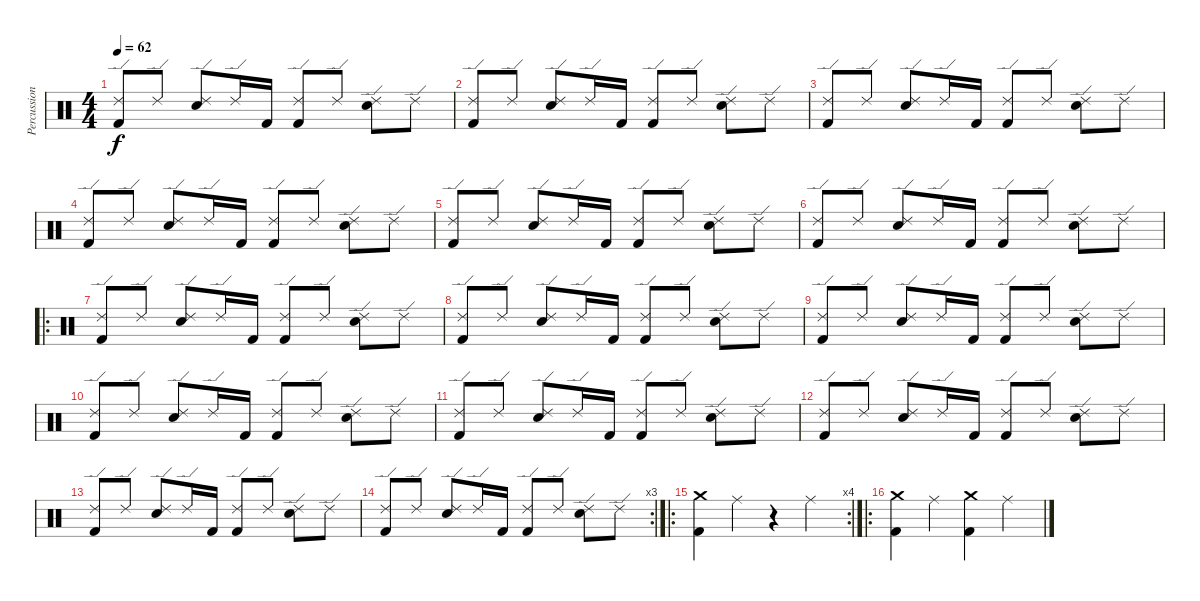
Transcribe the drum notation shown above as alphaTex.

\track ("Percussion" "Percussion") {instrument percussion}
\staff {score}
\articulation defaults
\ts (4 4)
\tempo 62
\clef neutral
\ks c
("Ride (edge) 2" "Kick (hit) 2").8{dy f} "Ride (edge) 2".8 ("Ride (edge) 2" "Electric Snare (hit)").8 "Ride (edge) 2".16 "Kick (hit) 2".16 ("Ride (edge) 2" "Kick (hit) 2").8 "Ride (edge) 2".8 ("Ride (edge) 2" "Electric Snare (hit)").8 "Ride (edge) 2".8 |
("Ride (edge) 2" "Kick (hit) 2").8 "Ride (edge) 2".8 ("Ride (edge) 2" "Electric Snare (hit)").8 "Ride (edge) 2".16 "Kick (hit) 2".16 ("Ride (edge) 2" "Kick (hit) 2").8 "Ride (edge) 2".8 ("Ride (edge) 2" "Electric Snare (hit)").8 "Ride (edge) 2".8 |
("Ride (edge) 2" "Kick (hit) 2").8 "Ride (edge) 2".8 ("Ride (edge) 2" "Electric Snare (hit)").8 "Ride (edge) 2".16 "Kick (hit) 2".16 ("Ride (edge) 2" "Kick (hit) 2").8 "Ride (edge) 2".8 ("Ride (edge) 2" "Electric Snare (hit)").8 "Ride (edge) 2".8 |
("Ride (edge) 2" "Kick (hit) 2").8 "Ride (edge) 2".8 ("Ride (edge) 2" "Electric Snare (hit)").8 "Ride (edge) 2".16 "Kick (hit) 2".16 ("Ride (edge) 2" "Kick (hit) 2").8 "Ride (edge) 2".8 ("Ride (edge) 2" "Electric Snare (hit)").8 "Ride (edge) 2".8 |
("Ride (edge) 2" "Kick (hit) 2").8 "Ride (edge) 2".8 ("Ride (edge) 2" "Electric Snare (hit)").8 "Ride (edge) 2".16 "Kick (hit) 2".16 ("Ride (edge) 2" "Kick (hit) 2").8 "Ride (edge) 2".8 ("Ride (edge) 2" "Electric Snare (hit)").8 "Ride (edge) 2".8 |
("Ride (edge) 2" "Kick (hit) 2").8 "Ride (edge) 2".8 ("Ride (edge) 2" "Electric Snare (hit)").8 "Ride (edge) 2".16 "Kick (hit) 2".16 ("Ride (edge) 2" "Kick (hit) 2").8 "Ride (edge) 2".8 ("Ride (edge) 2" "Electric Snare (hit)").8 "Ride (edge) 2".8 |
\ro
("Ride (edge) 2" "Kick (hit) 2").8 "Ride (edge) 2".8 ("Ride (edge) 2" "Electric Snare (hit)").8 "Ride (edge) 2".16 "Kick (hit) 2".16 ("Ride (edge) 2" "Kick (hit) 2").8 "Ride (edge) 2".8 ("Ride (edge) 2" "Electric Snare (hit)").8 "Ride (edge) 2".8 |
("Ride (edge) 2" "Kick (hit) 2").8 "Ride (edge) 2".8 ("Ride (edge) 2" "Electric Snare (hit)").8 "Ride (edge) 2".16 "Kick (hit) 2".16 ("Ride (edge) 2" "Kick (hit) 2").8 "Ride (edge) 2".8 ("Ride (edge) 2" "Electric Snare (hit)").8 "Ride (edge) 2".8 |
("Ride (edge) 2" "Kick (hit) 2").8 "Ride (edge) 2".8 ("Ride (edge) 2" "Electric Snare (hit)").8 "Ride (edge) 2".16 "Kick (hit) 2".16 ("Ride (edge) 2" "Kick (hit) 2").8 "Ride (edge) 2".8 ("Ride (edge) 2" "Electric Snare (hit)").8 "Ride (edge) 2".8 |
("Ride (edge) 2" "Kick (hit) 2").8 "Ride (edge) 2".8 ("Ride (edge) 2" "Electric Snare (hit)").8 "Ride (edge) 2".16 "Kick (hit) 2".16 ("Ride (edge) 2" "Kick (hit) 2").8 "Ride (edge) 2".8 ("Ride (edge) 2" "Electric Snare (hit)").8 "Ride (edge) 2".8 |
("Ride (edge) 2" "Kick (hit) 2").8 "Ride (edge) 2".8 ("Ride (edge) 2" "Electric Snare (hit)").8 "Ride (edge) 2".16 "Kick (hit) 2".16 ("Ride (edge) 2" "Kick (hit) 2").8 "Ride (edge) 2".8 ("Ride (edge) 2" "Electric Snare (hit)").8 "Ride (edge) 2".8 |
("Ride (edge) 2" "Kick (hit) 2").8 "Ride (edge) 2".8 ("Ride (edge) 2" "Electric Snare (hit)").8 "Ride (edge) 2".16 "Kick (hit) 2".16 ("Ride (edge) 2" "Kick (hit) 2").8 "Ride (edge) 2".8 ("Ride (edge) 2" "Electric Snare (hit)").8 "Ride (edge) 2".8 |
("Ride (edge) 2" "Kick (hit) 2").8 "Ride (edge) 2".8 ("Ride (edge) 2" "Electric Snare (hit)").8 "Ride (edge) 2".16 "Kick (hit) 2".16 ("Ride (edge) 2" "Kick (hit) 2").8 "Ride (edge) 2".8 ("Ride (edge) 2" "Electric Snare (hit)").8 "Ride (edge) 2".8 |
\rc 3
("Ride (edge) 2" "Kick (hit) 2").8 "Ride (edge) 2".8 ("Ride (edge) 2" "Electric Snare (hit)").8 "Ride (edge) 2".16 "Kick (hit) 2".16 ("Ride (edge) 2" "Kick (hit) 2").8 "Ride (edge) 2".8 ("Ride (edge) 2" "Electric Snare (hit)").8 "Ride (edge) 2".8 |
\ro
\rc 4
("Crash medium (hit)" "Kick (hit) 2").4 "Ride (middle)".4 r.4 "Ride (middle)".4 |
\ro
("Crash medium (hit)" "Kick (hit) 2").4 "Ride (middle)".4 ("Crash medium (hit)" "Kick (hit) 2").4 "Ride (middle)".4
